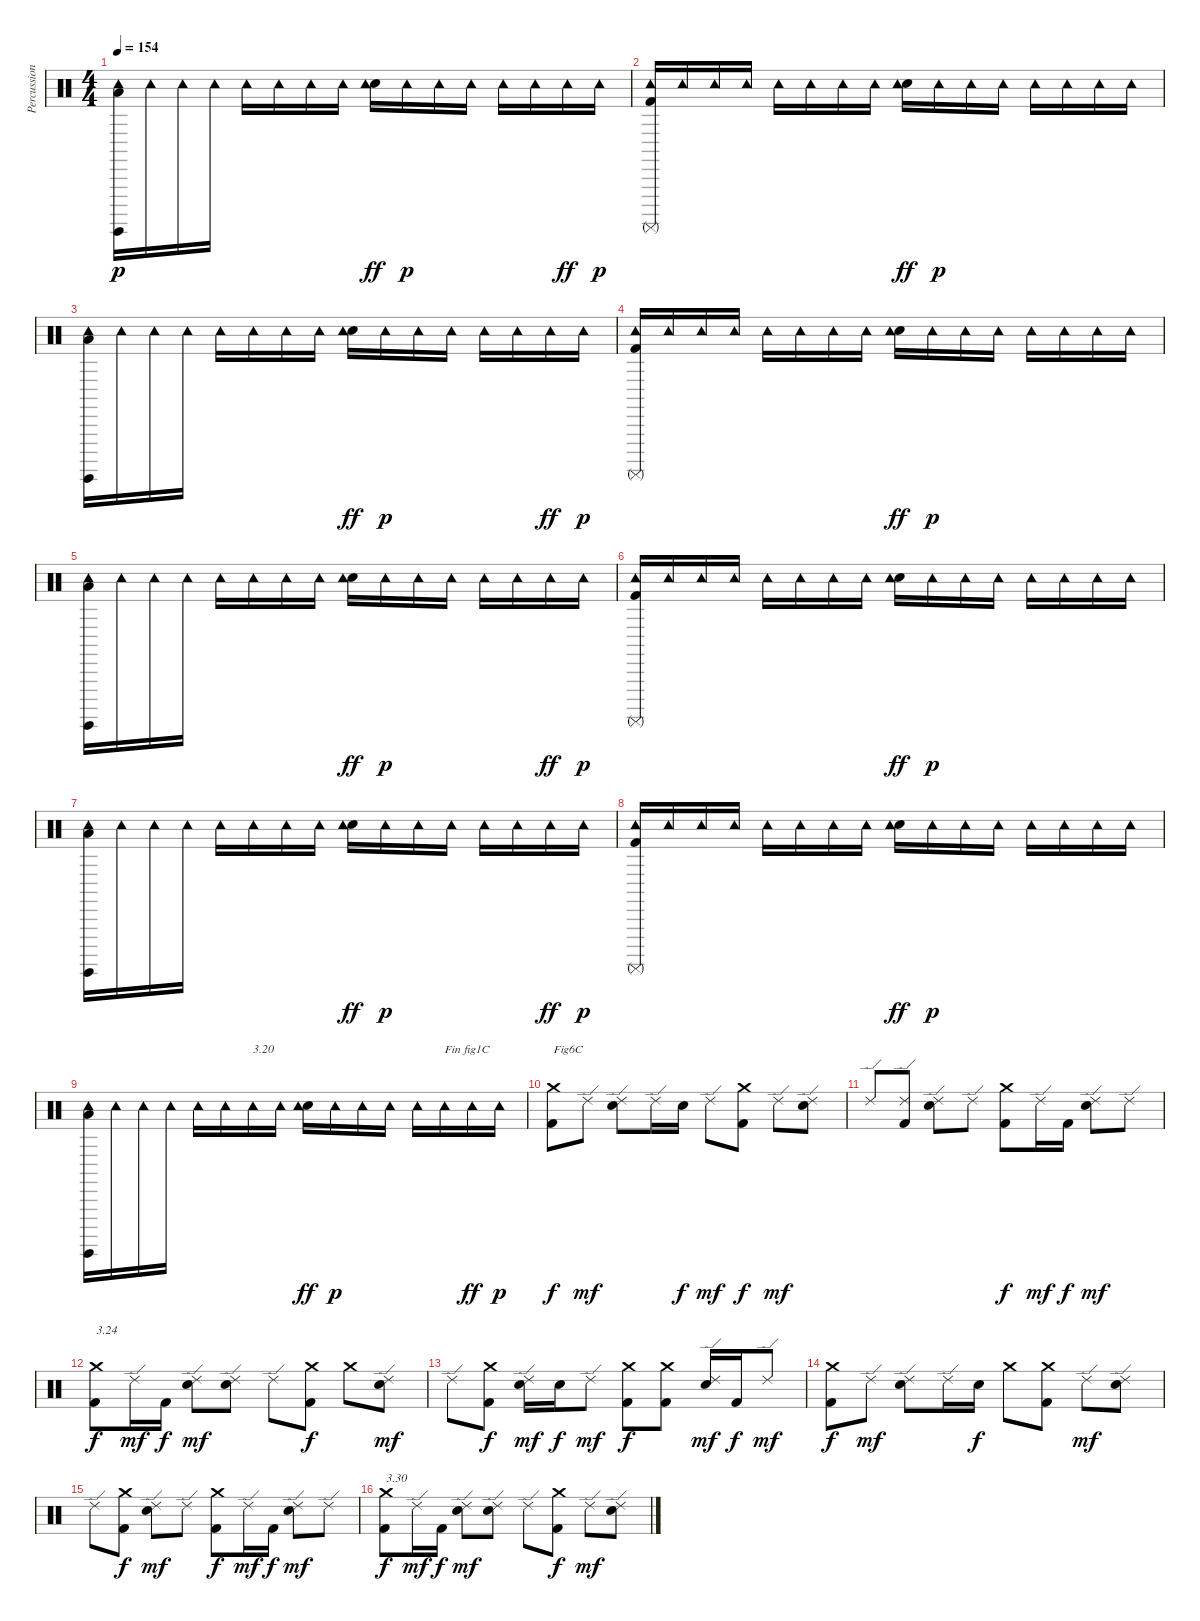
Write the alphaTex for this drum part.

\track ("Percussions" "Percussion") {instrument percussion}
\staff {score}
\articulation defaults
\ts (4 4)
\tempo 154
\clef neutral
\ks c
("Low Tom (hit)" "Surdo (hit)" "Tambourine (hit)").16{dy p} "Tambourine (hit)".16 "Tambourine (hit)".16 "Tambourine (hit)".16 "Tambourine (hit)".16 "Tambourine (hit)".16 "Tambourine (hit)".16 "Tambourine (hit)".16 ("Electric Snare (hit)" "Tambourine (hit)").16{dy ff} "Tambourine (hit)".16{dy p} "Tambourine (hit)".16 "Tambourine (hit)".16 "Tambourine (hit)".16 "Tambourine (hit)".16 "Tambourine (hit)".16{dy ff} "Tambourine (hit)".16{dy p} |
("Kick (hit) 2" "Surdo (mute)" "Tambourine (hit)").16 "Tambourine (hit)".16 "Tambourine (hit)".16 "Tambourine (hit)".16 "Tambourine (hit)".16 "Tambourine (hit)".16 "Tambourine (hit)".16 "Tambourine (hit)".16 ("Electric Snare (hit)" "Tambourine (hit)").16{dy ff} "Tambourine (hit)".16{dy p} "Tambourine (hit)".16 "Tambourine (hit)".16 "Tambourine (hit)".16 "Tambourine (hit)".16 "Tambourine (hit)".16 "Tambourine (hit)".16 |
("Low Tom (hit)" "Surdo (hit)" "Tambourine (hit)").16 "Tambourine (hit)".16 "Tambourine (hit)".16 "Tambourine (hit)".16 "Tambourine (hit)".16 "Tambourine (hit)".16 "Tambourine (hit)".16 "Tambourine (hit)".16 ("Electric Snare (hit)" "Tambourine (hit)").16{dy ff} "Tambourine (hit)".16{dy p} "Tambourine (hit)".16 "Tambourine (hit)".16 "Tambourine (hit)".16 "Tambourine (hit)".16 "Tambourine (hit)".16{dy ff} "Tambourine (hit)".16{dy p} |
("Kick (hit) 2" "Surdo (mute)" "Tambourine (hit)").16 "Tambourine (hit)".16 "Tambourine (hit)".16 "Tambourine (hit)".16 "Tambourine (hit)".16 "Tambourine (hit)".16 "Tambourine (hit)".16 "Tambourine (hit)".16 ("Electric Snare (hit)" "Tambourine (hit)").16{dy ff} "Tambourine (hit)".16{dy p} "Tambourine (hit)".16 "Tambourine (hit)".16 "Tambourine (hit)".16 "Tambourine (hit)".16 "Tambourine (hit)".16 "Tambourine (hit)".16 |
("Low Tom (hit)" "Surdo (hit)" "Tambourine (hit)").16 "Tambourine (hit)".16 "Tambourine (hit)".16 "Tambourine (hit)".16 "Tambourine (hit)".16 "Tambourine (hit)".16 "Tambourine (hit)".16 "Tambourine (hit)".16 ("Electric Snare (hit)" "Tambourine (hit)").16{dy ff} "Tambourine (hit)".16{dy p} "Tambourine (hit)".16 "Tambourine (hit)".16 "Tambourine (hit)".16 "Tambourine (hit)".16 "Tambourine (hit)".16{dy ff} "Tambourine (hit)".16{dy p} |
("Kick (hit) 2" "Surdo (mute)" "Tambourine (hit)").16 "Tambourine (hit)".16 "Tambourine (hit)".16 "Tambourine (hit)".16 "Tambourine (hit)".16 "Tambourine (hit)".16 "Tambourine (hit)".16 "Tambourine (hit)".16 ("Electric Snare (hit)" "Tambourine (hit)").16{dy ff} "Tambourine (hit)".16{dy p} "Tambourine (hit)".16 "Tambourine (hit)".16 "Tambourine (hit)".16 "Tambourine (hit)".16 "Tambourine (hit)".16 "Tambourine (hit)".16 |
("Low Tom (hit)" "Surdo (hit)" "Tambourine (hit)").16 "Tambourine (hit)".16 "Tambourine (hit)".16 "Tambourine (hit)".16 "Tambourine (hit)".16 "Tambourine (hit)".16 "Tambourine (hit)".16 "Tambourine (hit)".16 ("Electric Snare (hit)" "Tambourine (hit)").16{dy ff} "Tambourine (hit)".16{dy p} "Tambourine (hit)".16 "Tambourine (hit)".16 "Tambourine (hit)".16 "Tambourine (hit)".16 "Tambourine (hit)".16{dy ff} "Tambourine (hit)".16{dy p} |
("Kick (hit) 2" "Surdo (mute)" "Tambourine (hit)").16 "Tambourine (hit)".16 "Tambourine (hit)".16 "Tambourine (hit)".16 "Tambourine (hit)".16 "Tambourine (hit)".16 "Tambourine (hit)".16 "Tambourine (hit)".16 ("Electric Snare (hit)" "Tambourine (hit)").16{dy ff} "Tambourine (hit)".16{dy p} "Tambourine (hit)".16 "Tambourine (hit)".16 "Tambourine (hit)".16 "Tambourine (hit)".16 "Tambourine (hit)".16 "Tambourine (hit)".16 |
("Low Tom (hit)" "Surdo (hit)" "Tambourine (hit)").16 "Tambourine (hit)".16 "Tambourine (hit)".16 "Tambourine (hit)".16 "Tambourine (hit)".16 "Tambourine (hit)".16 "Tambourine (hit)".16{txt "3.20"} "Tambourine (hit)".16 ("Electric Snare (hit)" "Tambourine (hit)").16{dy ff} "Tambourine (hit)".16{dy p} "Tambourine (hit)".16 "Tambourine (hit)".16 "Tambourine (hit)".16 "Tambourine (hit)".16{txt "Fin fig1C"} "Tambourine (hit)".16{dy ff} "Tambourine (hit)".16{dy p} |
("Kick (hit) 2" "Crash medium (hit)").8{txt "Fig6C" dy f} "Ride (edge) 2".8{dy mf} ("Electric Snare (hit)" "Ride (edge) 2").8 "Ride (edge) 2".16 "Electric Snare (hit)".16{dy f} "Ride (edge) 2".8{dy mf} ("Kick (hit) 2" "Crash medium (hit)").8{dy f} "Ride (edge) 2".8{dy mf} ("Electric Snare (hit)" "Ride (edge) 2").8 |
"Ride (edge) 2".8 ("Kick (hit) 2" "Ride (edge) 2").8 ("Electric Snare (hit)" "Ride (edge) 2").8 "Ride (edge) 2".8 ("Kick (hit) 2" "Crash medium (hit)").8{dy f} "Ride (edge) 2".16{dy mf} "Kick (hit) 2".16{dy f} ("Electric Snare (hit)" "Ride (edge) 2").8{dy mf} "Ride (edge) 2".8 |
("Kick (hit) 2" "Crash medium (hit)").8{txt "3.24" dy f} "Ride (edge) 2".16{dy mf} "Kick (hit) 2".16{dy f} ("Electric Snare (hit)" "Ride (edge) 2").8{dy mf} ("Electric Snare (hit)" "Ride (edge) 2").8 "Ride (edge) 2".8 ("Kick (hit) 2" "Crash medium (hit)").8{dy f} "Crash medium (hit)".8 ("Electric Snare (hit)" "Ride (edge) 2").8{dy mf} |
"Ride (edge) 2".8 ("Kick (hit) 2" "Crash medium (hit)").8{dy f} ("Electric Snare (hit)" "Ride (edge) 2").16{dy mf} "Electric Snare (hit)".16{dy f} "Ride (edge) 2".8{dy mf} ("Kick (hit) 2" "Crash medium (hit)").8{dy f} ("Kick (hit) 2" "Crash medium (hit)").8 ("Electric Snare (hit)" "Ride (edge) 2").16{dy mf} "Kick (hit) 2".16{dy f} "Ride (edge) 2".8{dy mf} |
("Kick (hit) 2" "Crash medium (hit)").8{dy f} "Ride (edge) 2".8{dy mf} ("Electric Snare (hit)" "Ride (edge) 2").8 "Ride (edge) 2".16 "Electric Snare (hit)".16{dy f} "Crash medium (hit)".8 ("Kick (hit) 2" "Crash medium (hit)").8 "Ride (edge) 2".8{dy mf} ("Electric Snare (hit)" "Ride (edge) 2").8 |
"Ride (edge) 2".8 ("Kick (hit) 2" "Crash medium (hit)").8{dy f} ("Electric Snare (hit)" "Ride (edge) 2").8{dy mf} "Ride (edge) 2".8 ("Kick (hit) 2" "Crash medium (hit)").8{dy f} "Ride (edge) 2".16{dy mf} "Kick (hit) 2".16{dy f} ("Electric Snare (hit)" "Ride (edge) 2").8{dy mf} "Ride (edge) 2".8 |
("Kick (hit) 2" "Crash medium (hit)").8{txt "3.30" dy f} "Ride (edge) 2".16{dy mf} "Kick (hit) 2".16{dy f} ("Electric Snare (hit)" "Ride (edge) 2").8{dy mf} ("Electric Snare (hit)" "Ride (edge) 2").8 "Ride (edge) 2".8 ("Kick (hit) 2" "Crash medium (hit)").8{dy f} "Ride (edge) 2".8{dy mf} ("Electric Snare (hit)" "Ride (edge) 2").8
